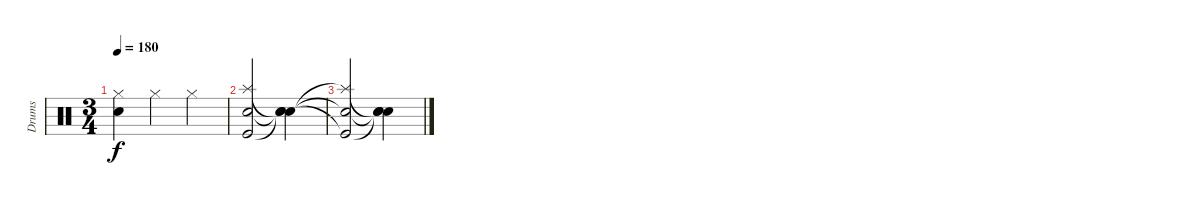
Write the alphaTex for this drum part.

\track ("Drums" "Drums") {instrument percussion}
\staff {score}
\articulation defaults
\ts (3 4)
\tempo 180
\clef neutral
\ks c
("Hi-Hat (closed)" "Electric Snare (hit)").4{dy f} "Hi-Hat (closed)".4 "Hi-Hat (closed)".4 |
("Splash (hit)" "Electric Snare (hit)" "Kick (hit)").2 ("Snare (hit)"{t} "Snare (hit)"{t} "Snare (hit)"{t}).4 |
("Splash (hit)"{t} "Electric Snare (hit)"{t} "Kick (hit)"{t}).2 ("Snare (hit)"{t} "Snare (hit)"{t} "Snare (hit)"{t}).4
